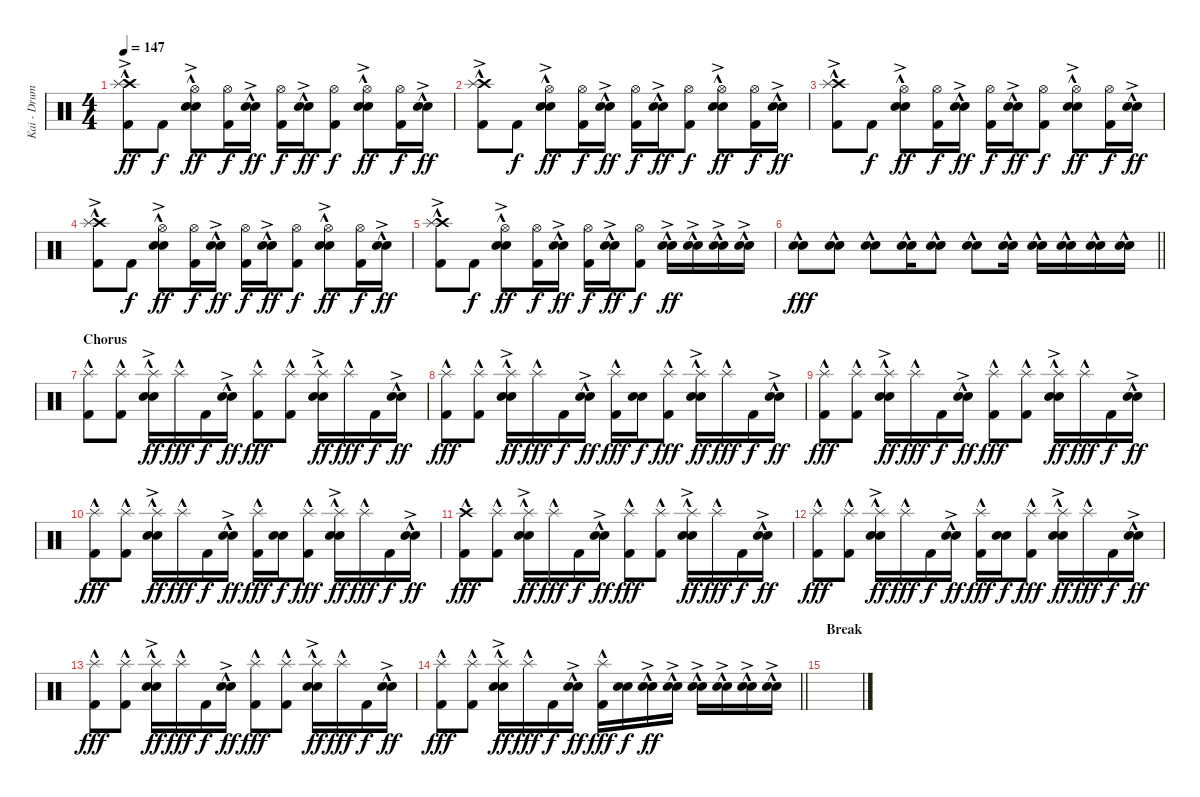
\track ("Kai - Drums" "Kai - Drum") {instrument percussion}
\staff {score}
\articulation defaults
\ts (4 4)
\tempo 147
\clef neutral
\ks c
("Crash high (hit)"{hac} "Splash (hit)"{ac} "Kick (hit) 2").8{dy ff} "Kick (hit) 2".8{dy f} ("Hi-Hat (open)" "Electric Snare (hit)"{hac} "Snare (hit) 2"{ac}).8{dy ff} ("Hi-Hat (open)" "Kick (hit) 2").16{dy f} ("Electric Snare (hit)"{hac} "Snare (hit) 2"{ac}).16{dy ff} ("Hi-Hat (open)" "Kick (hit) 2").16{dy f} ("Electric Snare (hit)"{hac} "Snare (hit) 2"{ac}).16{dy ff} ("Hi-Hat (open)" "Kick (hit) 2").8{dy f} ("Hi-Hat (open)" "Electric Snare (hit)"{hac} "Snare (hit) 2"{ac}).8{dy ff} ("Hi-Hat (open)" "Kick (hit) 2").16{dy f} ("Electric Snare (hit)"{hac} "Snare (hit) 2"{ac}).16{dy ff} |
("Crash high (hit)"{hac} "Splash (hit)"{ac} "Kick (hit) 2").8 "Kick (hit) 2".8{dy f} ("Hi-Hat (open)" "Electric Snare (hit)"{hac} "Snare (hit) 2"{ac}).8{dy ff} ("Hi-Hat (open)" "Kick (hit) 2").16{dy f} ("Electric Snare (hit)"{hac} "Snare (hit) 2"{ac}).16{dy ff} ("Hi-Hat (open)" "Kick (hit) 2").16{dy f} ("Electric Snare (hit)"{hac} "Snare (hit) 2"{ac}).16{dy ff} ("Hi-Hat (open)" "Kick (hit) 2").8{dy f} ("Hi-Hat (open)" "Electric Snare (hit)"{hac} "Snare (hit) 2"{ac}).8{dy ff} ("Hi-Hat (open)" "Kick (hit) 2").16{dy f} ("Electric Snare (hit)"{hac} "Snare (hit) 2"{ac}).16{dy ff} |
("Crash high (hit)"{hac} "Splash (hit)"{ac} "Kick (hit) 2").8 "Kick (hit) 2".8{dy f} ("Hi-Hat (open)" "Electric Snare (hit)"{hac} "Snare (hit) 2"{ac}).8{dy ff} ("Hi-Hat (open)" "Kick (hit) 2").16{dy f} ("Electric Snare (hit)"{hac} "Snare (hit) 2"{ac}).16{dy ff} ("Hi-Hat (open)" "Kick (hit) 2").16{dy f} ("Electric Snare (hit)"{hac} "Snare (hit) 2"{ac}).16{dy ff} ("Hi-Hat (open)" "Kick (hit) 2").8{dy f} ("Hi-Hat (open)" "Electric Snare (hit)"{hac} "Snare (hit) 2"{ac}).8{dy ff} ("Hi-Hat (open)" "Kick (hit) 2").16{dy f} ("Electric Snare (hit)"{hac} "Snare (hit) 2"{ac}).16{dy ff} |
("Crash high (hit)"{hac} "Splash (hit)"{ac} "Kick (hit) 2").8 "Kick (hit) 2".8{dy f} ("Hi-Hat (open)" "Electric Snare (hit)"{hac} "Snare (hit) 2"{ac}).8{dy ff} ("Hi-Hat (open)" "Kick (hit) 2").16{dy f} ("Electric Snare (hit)"{hac} "Snare (hit) 2"{ac}).16{dy ff} ("Hi-Hat (open)" "Kick (hit) 2").16{dy f} ("Electric Snare (hit)"{hac} "Snare (hit) 2"{ac}).16{dy ff} ("Hi-Hat (open)" "Kick (hit) 2").8{dy f} ("Hi-Hat (open)" "Electric Snare (hit)"{hac} "Snare (hit) 2"{ac}).8{dy ff} ("Hi-Hat (open)" "Kick (hit) 2").16{dy f} ("Electric Snare (hit)"{hac} "Snare (hit) 2"{ac}).16{dy ff} |
("Crash high (hit)"{hac} "Splash (hit)"{ac} "Kick (hit) 2").8 "Kick (hit) 2".8{dy f} ("Hi-Hat (open)" "Electric Snare (hit)"{hac} "Snare (hit) 2"{ac}).8{dy ff} ("Hi-Hat (open)" "Kick (hit) 2").16{dy f} ("Electric Snare (hit)"{hac} "Snare (hit) 2"{ac}).16{dy ff} ("Hi-Hat (open)" "Kick (hit) 2").16{dy f} ("Electric Snare (hit)"{hac} "Snare (hit) 2"{ac}).16{dy ff} ("Hi-Hat (open)" "Kick (hit) 2").8{dy f} ("Electric Snare (hit)"{hac} "Snare (hit) 2"{ac}).16{dy ff} ("Electric Snare (hit)"{hac} "Snare (hit) 2"{ac}).16 ("Electric Snare (hit)"{hac} "Snare (hit) 2"{ac}).16 ("Electric Snare (hit)"{hac} "Snare (hit) 2"{ac}).16 |
\barLineRight lightlight
("Electric Snare (hit)"{hac} "Snare (hit) 2").8{dy fff} ("Electric Snare (hit)"{hac} "Snare (hit) 2").8 ("Electric Snare (hit)"{hac} "Snare (hit) 2").8 ("Electric Snare (hit)"{hac} "Snare (hit) 2").16 ("Electric Snare (hit)"{hac} "Snare (hit) 2").8 ("Electric Snare (hit)"{hac} "Snare (hit) 2").8 ("Electric Snare (hit)"{hac} "Snare (hit) 2").16 ("Electric Snare (hit)"{hac} "Snare (hit) 2").16 ("Electric Snare (hit)"{hac} "Snare (hit) 2").16 ("Electric Snare (hit)"{hac} "Snare (hit) 2").16 ("Electric Snare (hit)"{hac} "Snare (hit) 2").16 |
\section ("" "Chorus")
("Splash (hit)"{hac} "Kick (hit) 2").8 ("Splash (hit)"{hac} "Kick (hit) 2").8 ("Splash (hit)"{hac} "Electric Snare (hit)"{hac} "Snare (hit) 2"{ac}).16{dy ff} "Splash (hit)"{hac}.16{dy fff} "Kick (hit) 2".16{dy f} ("Electric Snare (hit)"{hac} "Snare (hit) 2"{ac}).16{dy ff} ("Splash (hit)"{hac} "Kick (hit) 2").8{dy fff} ("Splash (hit)"{hac} "Kick (hit) 2").8 ("Splash (hit)"{hac} "Electric Snare (hit)"{hac} "Snare (hit) 2"{ac}).16{dy ff} "Splash (hit)"{hac}.16{dy fff} "Kick (hit) 2".16{dy f} ("Electric Snare (hit)"{hac} "Snare (hit) 2"{ac}).16{dy ff} |
("Splash (hit)"{hac} "Kick (hit) 2").8{dy fff} ("Splash (hit)"{hac} "Kick (hit) 2").8 ("Splash (hit)"{hac} "Electric Snare (hit)"{hac} "Snare (hit) 2"{ac}).16{dy ff} "Splash (hit)"{hac}.16{dy fff} "Kick (hit) 2".16{dy f} ("Electric Snare (hit)"{hac} "Snare (hit) 2"{ac}).16{dy ff} ("Splash (hit)"{hac} "Kick (hit) 2").16{dy fff} ("Electric Snare (hit)" "Snare (hit) 2").16{dy f} ("Splash (hit)"{hac} "Kick (hit) 2").8{dy fff} ("Splash (hit)"{hac} "Electric Snare (hit)"{hac} "Snare (hit) 2"{ac}).16{dy ff} "Splash (hit)"{hac}.16{dy fff} "Kick (hit) 2".16{dy f} ("Electric Snare (hit)"{hac} "Snare (hit) 2"{ac}).16{dy ff} |
("Splash (hit)"{hac} "Kick (hit) 2").8{dy fff} ("Splash (hit)"{hac} "Kick (hit) 2").8 ("Splash (hit)"{hac} "Electric Snare (hit)"{hac} "Snare (hit) 2"{ac}).16{dy ff} "Splash (hit)"{hac}.16{dy fff} "Kick (hit) 2".16{dy f} ("Electric Snare (hit)"{hac} "Snare (hit) 2"{ac}).16{dy ff} ("Splash (hit)"{hac} "Kick (hit) 2").8{dy fff} ("Splash (hit)"{hac} "Kick (hit) 2").8 ("Splash (hit)"{hac} "Electric Snare (hit)"{hac} "Snare (hit) 2"{ac}).16{dy ff} "Splash (hit)"{hac}.16{dy fff} "Kick (hit) 2".16{dy f} ("Electric Snare (hit)"{hac} "Snare (hit) 2"{ac}).16{dy ff} |
("Splash (hit)"{hac} "Kick (hit) 2").8{dy fff} ("Splash (hit)"{hac} "Kick (hit) 2").8 ("Splash (hit)"{hac} "Electric Snare (hit)"{hac} "Snare (hit) 2"{ac}).16{dy ff} "Splash (hit)"{hac}.16{dy fff} "Kick (hit) 2".16{dy f} ("Electric Snare (hit)"{hac} "Snare (hit) 2"{ac}).16{dy ff} ("Splash (hit)"{hac} "Kick (hit) 2").16{dy fff} ("Electric Snare (hit)" "Snare (hit) 2").16{dy f} ("Splash (hit)"{hac} "Kick (hit) 2").8{dy fff} ("Splash (hit)"{hac} "Electric Snare (hit)"{hac} "Snare (hit) 2"{ac}).16{dy ff} "Splash (hit)"{hac}.16{dy fff} "Kick (hit) 2".16{dy f} ("Electric Snare (hit)"{hac} "Snare (hit) 2"{ac}).16{dy ff} |
("Crash high (hit)"{hac} "Kick (hit) 2").8{dy fff} ("Splash (hit)"{hac} "Kick (hit) 2").8 ("Splash (hit)"{hac} "Electric Snare (hit)"{hac} "Snare (hit) 2"{ac}).16{dy ff} "Splash (hit)"{hac}.16{dy fff} "Kick (hit) 2".16{dy f} ("Electric Snare (hit)"{hac} "Snare (hit) 2"{ac}).16{dy ff} ("Splash (hit)"{hac} "Kick (hit) 2").8{dy fff} ("Splash (hit)"{hac} "Kick (hit) 2").8 ("Splash (hit)"{hac} "Electric Snare (hit)"{hac} "Snare (hit) 2"{ac}).16{dy ff} "Splash (hit)"{hac}.16{dy fff} "Kick (hit) 2".16{dy f} ("Electric Snare (hit)"{hac} "Snare (hit) 2"{ac}).16{dy ff} |
("Splash (hit)"{hac} "Kick (hit) 2").8{dy fff} ("Splash (hit)"{hac} "Kick (hit) 2").8 ("Splash (hit)"{hac} "Electric Snare (hit)"{hac} "Snare (hit) 2"{ac}).16{dy ff} "Splash (hit)"{hac}.16{dy fff} "Kick (hit) 2".16{dy f} ("Electric Snare (hit)"{hac} "Snare (hit) 2"{ac}).16{dy ff} ("Splash (hit)"{hac} "Kick (hit) 2").16{dy fff} ("Electric Snare (hit)" "Snare (hit) 2").16{dy f} ("Splash (hit)"{hac} "Kick (hit) 2").8{dy fff} ("Splash (hit)"{hac} "Electric Snare (hit)"{hac} "Snare (hit) 2"{ac}).16{dy ff} "Splash (hit)"{hac}.16{dy fff} "Kick (hit) 2".16{dy f} ("Electric Snare (hit)"{hac} "Snare (hit) 2"{ac}).16{dy ff} |
("Splash (hit)"{hac} "Kick (hit) 2").8{dy fff} ("Splash (hit)"{hac} "Kick (hit) 2").8 ("Splash (hit)"{hac} "Electric Snare (hit)"{hac} "Snare (hit) 2"{ac}).16{dy ff} "Splash (hit)"{hac}.16{dy fff} "Kick (hit) 2".16{dy f} ("Electric Snare (hit)"{hac} "Snare (hit) 2"{ac}).16{dy ff} ("Splash (hit)"{hac} "Kick (hit) 2").8{dy fff} ("Splash (hit)"{hac} "Kick (hit) 2").8 ("Splash (hit)"{hac} "Electric Snare (hit)"{hac} "Snare (hit) 2"{ac}).16{dy ff} "Splash (hit)"{hac}.16{dy fff} "Kick (hit) 2".16{dy f} ("Electric Snare (hit)"{hac} "Snare (hit) 2"{ac}).16{dy ff} |
\barLineRight lightlight
("Splash (hit)"{hac} "Kick (hit) 2").8{dy fff} ("Splash (hit)"{hac} "Kick (hit) 2").8 ("Splash (hit)"{hac} "Electric Snare (hit)"{hac} "Snare (hit) 2"{ac}).16{dy ff} "Splash (hit)"{hac}.16{dy fff} "Kick (hit) 2".16{dy f} ("Electric Snare (hit)"{hac} "Snare (hit) 2"{ac}).16{dy ff} ("Splash (hit)"{hac} "Kick (hit) 2").16{dy fff} ("Electric Snare (hit)" "Snare (hit) 2").16{dy f} ("Electric Snare (hit)"{hac} "Snare (hit) 2"{ac}).16{dy ff} ("Electric Snare (hit)"{hac} "Snare (hit) 2"{ac}).16 ("Electric Snare (hit)"{hac} "Snare (hit) 2"{ac}).16 ("Electric Snare (hit)"{hac} "Snare (hit) 2"{ac}).16 ("Electric Snare (hit)"{hac} "Snare (hit) 2"{ac}).16 ("Electric Snare (hit)"{hac} "Snare (hit) 2"{ac}).16 |
\section ("" "Break")
